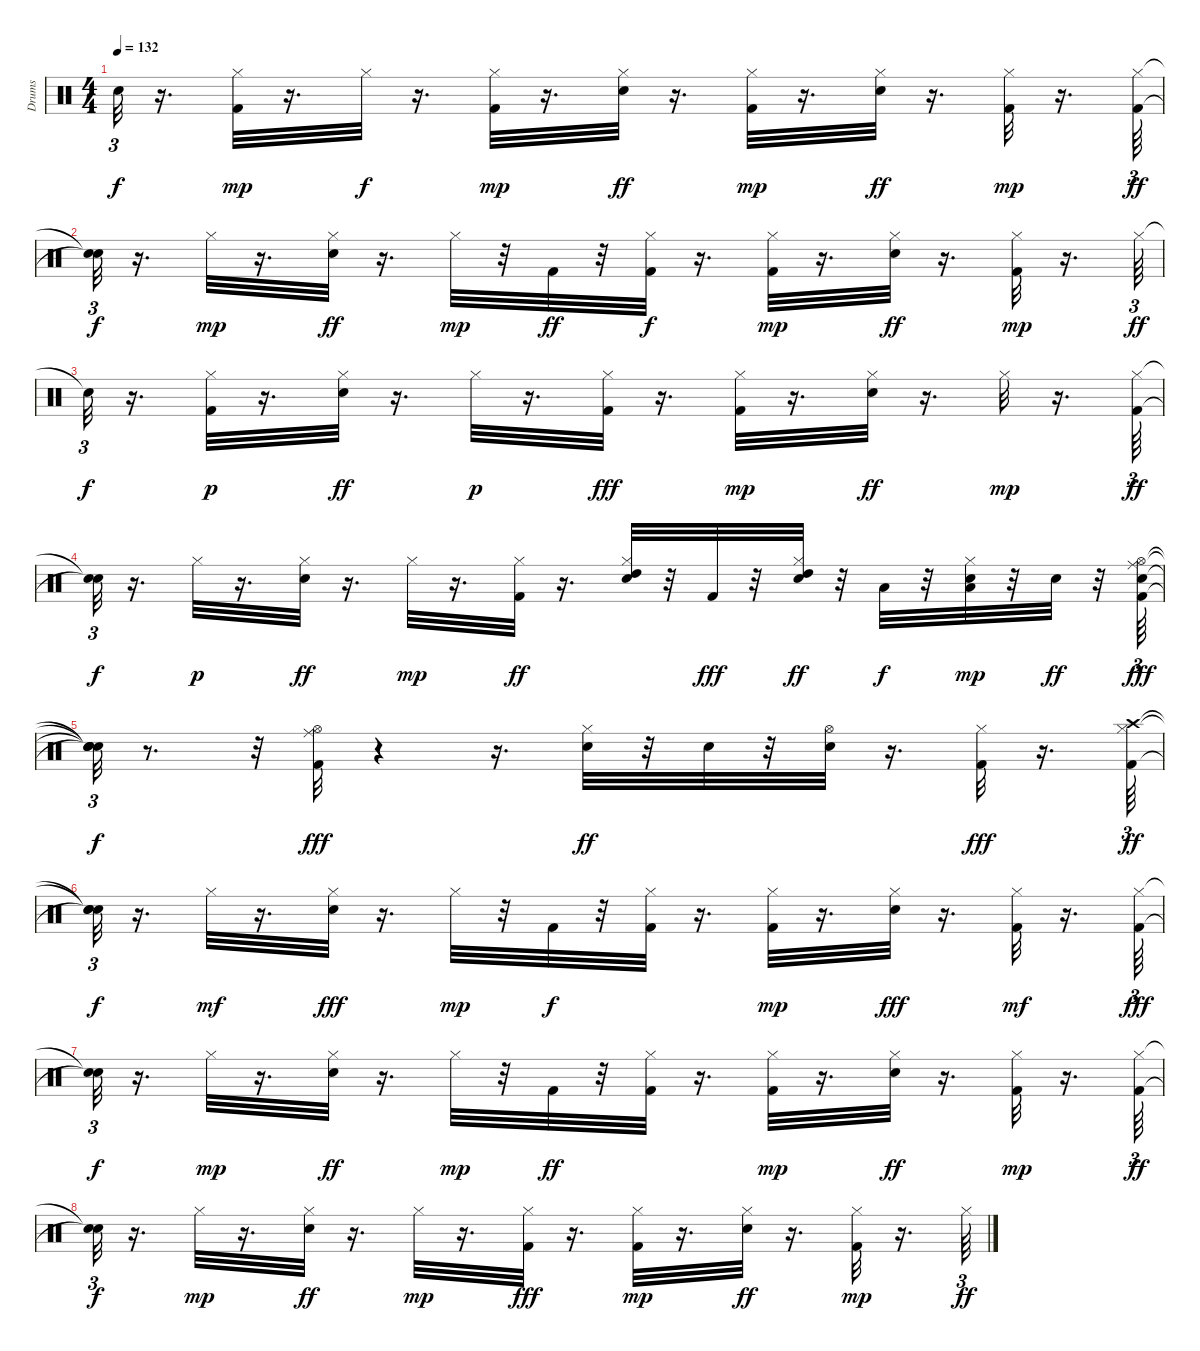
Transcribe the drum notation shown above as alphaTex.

\track ("Drums" "Drums") {instrument percussion}
\staff {score}
\articulation defaults
\ts (4 4)
\tempo 132
\clef neutral
\ks c "Snare (hit)"{t}.32{tu (3 2) dy f}
r.16{d} ("Kick (hit) 2" "Hi-Hat (closed)").32{dy mp} r.16{d} "Hi-Hat (closed)".32{dy f} r.16{d} ("Kick (hit) 2" "Hi-Hat (closed)").32{dy mp} r.16{d} ("Snare (hit) 2" "Hi-Hat (closed)").32{dy ff} r.16{d} ("Kick (hit) 2" "Hi-Hat (closed)").32{dy mp} r.16{d} ("Snare (hit) 2" "Hi-Hat (closed)").32{dy ff} r.16{d} ("Kick (hit) 2" "Hi-Hat (closed)").32{dy mp} r.16{d} ("Kick (hit) 2" "Hi-Hat (closed)").64{tu (3 2) dy ff} |
("Snare (hit)"{t} "Snare (hit)"{t}).32{tu (3 2) dy f} r.16{d} "Hi-Hat (closed)".32{dy mp} r.16{d} ("Snare (hit) 2" "Hi-Hat (closed)").32{dy ff} r.16{d} "Hi-Hat (closed)".32{dy mp} r.32 "Kick (hit) 2".32{dy ff} r.32 ("Kick (hit) 2" "Hi-Hat (closed)").32{dy f} r.16{d} ("Kick (hit) 2" "Hi-Hat (closed)").32{dy mp} r.16{d} ("Snare (hit) 2" "Hi-Hat (closed)").32{dy ff} r.16{d} ("Kick (hit) 2" "Hi-Hat (closed)").32{dy mp} r.16{d} "Hi-Hat (closed)".64{tu (3 2) dy ff} |
"Snare (hit)"{t}.32{tu (3 2) dy f} r.16{d} ("Kick (hit) 2" "Hi-Hat (closed)").32{dy p} r.16{d} ("Snare (hit) 2" "Hi-Hat (closed)").32{dy ff} r.16{d} "Hi-Hat (closed)".32{dy p} r.16{d} ("Kick (hit) 2" "Hi-Hat (closed)").32{dy fff} r.16{d} ("Kick (hit) 2" "Hi-Hat (closed)").32{dy mp} r.16{d} ("Snare (hit) 2" "Hi-Hat (closed)").32{dy ff} r.16{d} "Hi-Hat (closed)".32{dy mp} r.16{d} ("Kick (hit) 2" "Hi-Hat (closed)").64{tu (3 2) dy ff} |
("Snare (hit)"{t} "Snare (hit)"{t}).32{tu (3 2) dy f} r.16{d} "Hi-Hat (closed)".32{dy p} r.16{d} ("Snare (hit) 2" "Hi-Hat (closed)").32{dy ff} r.16{d} "Hi-Hat (closed)".32{dy mp} r.16{d} ("Kick (hit) 2" "Hi-Hat (closed)").32{dy ff} r.16{d} ("Snare (hit) 2" "Hi-Hat (closed)" "High Tom (hit)").32 r.32 "Kick (hit) 2".32{dy fff} r.32 ("Snare (hit) 2" "Hi-Hat (closed)" "High Tom (hit)").32{dy ff} r.32 "Low Tom (hit)".32{dy f} r.32 ("Snare (hit) 2" "Hi-Hat (closed)" "Low Floor Tom (hit)").32{dy mp} r.32 "Snare (hit) 2".32{dy ff} r.32 ("Kick (hit) 2" "Snare (hit) 2" "Ride (middle)" "Hi-Hat (open)").64{tu (3 2) dy fff} |
("Snare (hit)"{t} "Snare (hit)"{t} "Snare (hit)"{t} "Snare (hit)"{t}).32{tu (3 2) dy f} r.8{d} r.32 ("Kick (hit) 2" "Ride (middle)" "Hi-Hat (open)").32{dy fff} r.4 r.16{d} ("Snare (hit) 2" "Hi-Hat (closed)").32{dy ff} r.32 "Snare (hit) 2".32 r.32 ("Snare (hit) 2" "Hi-Hat (open)").32 r.16{d} ("Kick (hit) 2" "Hi-Hat (closed)").32{dy fff} r.16{d} ("Kick (hit) 2" "Hi-Hat (closed)" "Crash high (hit)").64{tu (3 2) dy ff} |
("Snare (hit)"{t} "Snare (hit)"{t} "Snare (hit)"{t}).32{tu (3 2) dy f} r.16{d} "Hi-Hat (closed)".32{dy mf} r.16{d} ("Snare (hit) 2" "Hi-Hat (closed)").32{dy fff} r.16{d} "Hi-Hat (closed)".32{dy mp} r.32 "Kick (hit) 2".32{dy f} r.32 ("Kick (hit) 2" "Hi-Hat (closed)").32 r.16{d} ("Kick (hit) 2" "Hi-Hat (closed)").32{dy mp} r.16{d} ("Snare (hit) 2" "Hi-Hat (closed)").32{dy fff} r.16{d} ("Kick (hit) 2" "Hi-Hat (closed)").32{dy mf} r.16{d} ("Kick (hit) 2" "Hi-Hat (closed)").64{tu (3 2) dy fff} |
("Snare (hit)"{t} "Snare (hit)"{t}).32{tu (3 2) dy f} r.16{d} "Hi-Hat (closed)".32{dy mp} r.16{d} ("Snare (hit) 2" "Hi-Hat (closed)").32{dy ff} r.16{d} "Hi-Hat (closed)".32{dy mp} r.32 "Kick (hit) 2".32{dy ff} r.32 ("Kick (hit) 2" "Hi-Hat (closed)").32 r.16{d} ("Kick (hit) 2" "Hi-Hat (closed)").32{dy mp} r.16{d} ("Snare (hit) 2" "Hi-Hat (closed)").32{dy ff} r.16{d} ("Kick (hit) 2" "Hi-Hat (closed)").32{dy mp} r.16{d} ("Kick (hit) 2" "Hi-Hat (closed)").64{tu (3 2) dy ff} |
("Snare (hit)"{t} "Snare (hit)"{t}).32{tu (3 2) dy f} r.16{d} "Hi-Hat (closed)".32{dy mp} r.16{d} ("Snare (hit) 2" "Hi-Hat (closed)").32{dy ff} r.16{d} "Hi-Hat (closed)".32{dy mp} r.16{d} ("Kick (hit) 2" "Hi-Hat (closed)").32{dy fff} r.16{d} ("Kick (hit) 2" "Hi-Hat (closed)").32{dy mp} r.16{d} ("Snare (hit) 2" "Hi-Hat (closed)").32{dy ff} r.16{d} ("Kick (hit) 2" "Hi-Hat (closed)").32{dy mp} r.16{d} "Hi-Hat (closed)".64{tu (3 2) dy ff}
